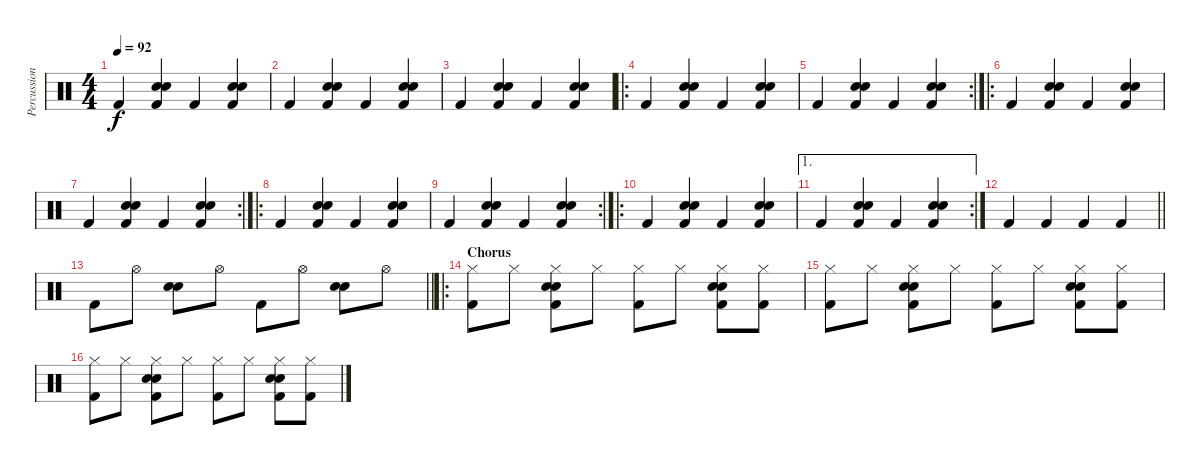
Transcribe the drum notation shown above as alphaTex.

\track ("Percussion" "Percussion") {instrument percussion}
\staff {score}
\articulation defaults
\ts (4 4)
\tempo 92
\clef neutral
\ks c "Kick (hit) 2".4{dy f}
("Electric Snare (hit)" "Hand Clap (hit)" "Kick (hit) 2").4 "Kick (hit) 2".4 ("Electric Snare (hit)" "Hand Clap (hit)" "Kick (hit) 2").4 |
"Kick (hit) 2".4 ("Electric Snare (hit)" "Hand Clap (hit)" "Kick (hit) 2").4 "Kick (hit) 2".4 ("Electric Snare (hit)" "Hand Clap (hit)" "Kick (hit) 2").4 |
"Kick (hit) 2".4 ("Electric Snare (hit)" "Hand Clap (hit)" "Kick (hit) 2").4 "Kick (hit) 2".4 ("Electric Snare (hit)" "Hand Clap (hit)" "Kick (hit) 2").4 |
\ro "Kick (hit) 2".4
("Electric Snare (hit)" "Hand Clap (hit)" "Kick (hit) 2").4 "Kick (hit) 2".4 ("Electric Snare (hit)" "Hand Clap (hit)" "Kick (hit) 2").4 |
\rc 2 "Kick (hit) 2".4
("Electric Snare (hit)" "Hand Clap (hit)" "Kick (hit) 2").4 "Kick (hit) 2".4 ("Electric Snare (hit)" "Hand Clap (hit)" "Kick (hit) 2").4 |
\ro "Kick (hit) 2".4
("Electric Snare (hit)" "Hand Clap (hit)" "Kick (hit) 2").4 "Kick (hit) 2".4 ("Electric Snare (hit)" "Hand Clap (hit)" "Kick (hit) 2").4 |
\rc 2 "Kick (hit) 2".4
("Electric Snare (hit)" "Hand Clap (hit)" "Kick (hit) 2").4 "Kick (hit) 2".4 ("Electric Snare (hit)" "Hand Clap (hit)" "Kick (hit) 2").4 |
\ro "Kick (hit) 2".4
("Electric Snare (hit)" "Hand Clap (hit)" "Kick (hit) 2").4 "Kick (hit) 2".4 ("Electric Snare (hit)" "Hand Clap (hit)" "Kick (hit) 2").4 |
\rc 2 "Kick (hit) 2".4
("Electric Snare (hit)" "Hand Clap (hit)" "Kick (hit) 2").4 "Kick (hit) 2".4 ("Electric Snare (hit)" "Hand Clap (hit)" "Kick (hit) 2").4 |
\ro "Kick (hit) 2".4
("Electric Snare (hit)" "Hand Clap (hit)" "Kick (hit) 2").4 "Kick (hit) 2".4 ("Electric Snare (hit)" "Hand Clap (hit)" "Kick (hit) 2").4 |
\ae 1
\rc 2 "Kick (hit) 2".4
("Electric Snare (hit)" "Hand Clap (hit)" "Kick (hit) 2").4 "Kick (hit) 2".4 ("Electric Snare (hit)" "Hand Clap (hit)" "Kick (hit) 2").4 |
\barLineRight lightlight "Kick (hit) 2".4 "Kick (hit) 2".4 "Kick (hit) 2".4 "Kick (hit) 2".4
|
\barLineRight lightlight "Kick (hit) 2".8 "Hi-Hat (open)".8
("Electric Snare (hit)" "Hand Clap (hit)").8 "Hi-Hat (open)".8 "Kick (hit) 2".8 "Hi-Hat (open)".8 ("Electric Snare (hit)" "Hand Clap (hit)").8 "Hi-Hat (open)".8 |
\ro
\section ("" "Chorus")
("Hi-Hat (closed)" "Kick (hit) 2").8 "Hi-Hat (closed)".8 ("Hi-Hat (closed)" "Electric Snare (hit)" "Hand Clap (hit)" "Kick (hit) 2").8 "Hi-Hat (closed)".8 ("Hi-Hat (closed)" "Kick (hit) 2").8 "Hi-Hat (closed)".8 ("Hi-Hat (closed)" "Electric Snare (hit)" "Hand Clap (hit)" "Kick (hit) 2").8 ("Hi-Hat (closed)" "Kick (hit) 2").8 |
("Hi-Hat (closed)" "Kick (hit) 2").8 "Hi-Hat (closed)".8 ("Hi-Hat (closed)" "Electric Snare (hit)" "Hand Clap (hit)" "Kick (hit) 2").8 "Hi-Hat (closed)".8 ("Hi-Hat (closed)" "Kick (hit) 2").8 "Hi-Hat (closed)".8 ("Hi-Hat (closed)" "Electric Snare (hit)" "Hand Clap (hit)" "Kick (hit) 2").8 ("Hi-Hat (closed)" "Kick (hit) 2").8 |
("Hi-Hat (closed)" "Kick (hit) 2").8 "Hi-Hat (closed)".8 ("Hi-Hat (closed)" "Electric Snare (hit)" "Hand Clap (hit)" "Kick (hit) 2").8 "Hi-Hat (closed)".8 ("Hi-Hat (closed)" "Kick (hit) 2").8 "Hi-Hat (closed)".8 ("Hi-Hat (closed)" "Electric Snare (hit)" "Hand Clap (hit)" "Kick (hit) 2").8 ("Hi-Hat (closed)" "Kick (hit) 2").8
